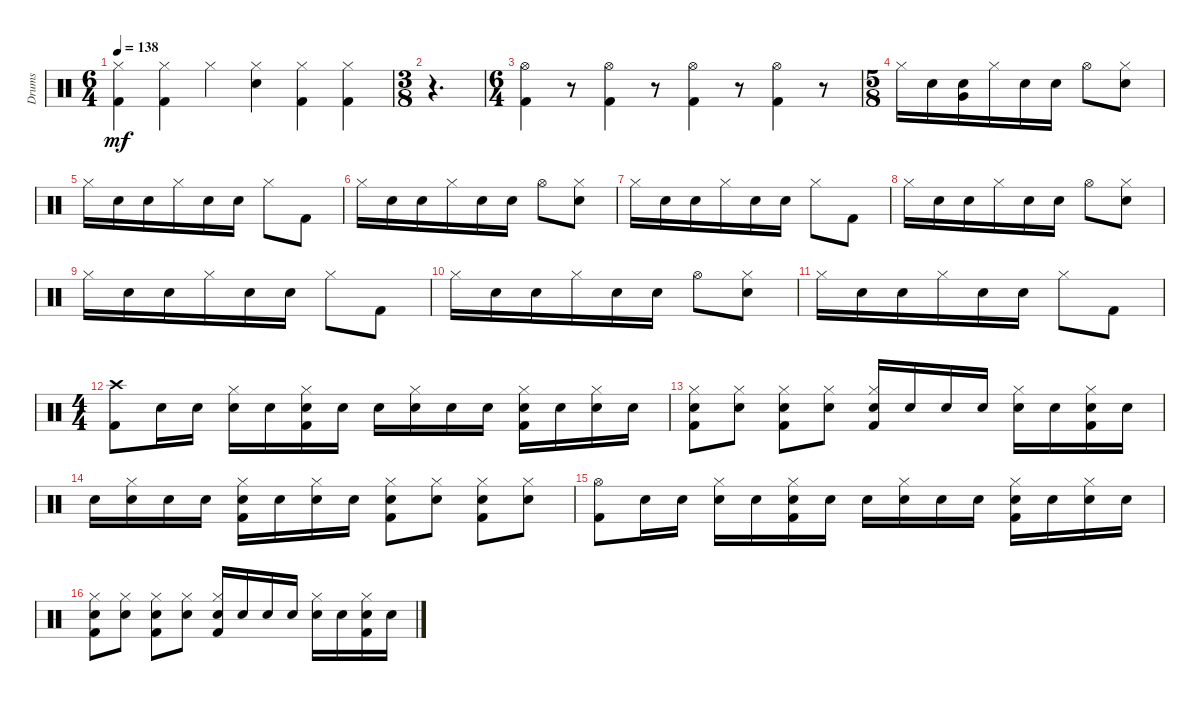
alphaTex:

\track ("Drums" "Drums") {instrument percussion}
\staff {score}
\articulation defaults
\ts (6 4)
\tempo 138
\clef neutral
\ks c
("Kick (hit) 2" "Hi-Hat (closed)").4{dy mf} ("Kick (hit) 2" "Hi-Hat (closed)").4 "Hi-Hat (closed)".4 ("Snare (hit) 2" "Hi-Hat (closed)").4 ("Kick (hit) 2" "Hi-Hat (closed)").4 ("Kick (hit) 2" "Hi-Hat (closed)").4 |
\ts (3 8)
r.4{d} |
\ts (6 4)
("Kick (hit) 2" "Hi-Hat (open)").4 r.8 ("Kick (hit) 2" "Hi-Hat (open)").4 r.8 ("Kick (hit) 2" "Hi-Hat (open)").4 r.8 ("Kick (hit) 2" "Hi-Hat (open)").4 r.8 |
\ts (5 8)
"Hi-Hat (closed)".16 "Snare (hit) 2".16 ("Snare (hit) 2" "Very Low Tom (hit)").16 "Hi-Hat (closed)".16 "Snare (hit) 2".16 "Snare (hit) 2".16 "Hi-Hat (open)".8 ("Snare (hit) 2" "Hi-Hat (closed)").8 |
"Hi-Hat (closed)".16 "Snare (hit) 2".16 "Snare (hit) 2".16 "Hi-Hat (closed)".16 "Snare (hit) 2".16 "Snare (hit) 2".16 "Hi-Hat (closed)".8 "Kick (hit) 2".8 |
"Hi-Hat (closed)".16 "Snare (hit) 2".16 "Snare (hit) 2".16 "Hi-Hat (closed)".16 "Snare (hit) 2".16 "Snare (hit) 2".16 "Hi-Hat (open)".8 ("Snare (hit) 2" "Hi-Hat (closed)").8 |
"Hi-Hat (closed)".16 "Snare (hit) 2".16 "Snare (hit) 2".16 "Hi-Hat (closed)".16 "Snare (hit) 2".16 "Snare (hit) 2".16 "Hi-Hat (closed)".8 "Kick (hit) 2".8 |
"Hi-Hat (closed)".16 "Snare (hit) 2".16 "Snare (hit) 2".16 "Hi-Hat (closed)".16 "Snare (hit) 2".16 "Snare (hit) 2".16 "Hi-Hat (open)".8 ("Snare (hit) 2" "Hi-Hat (closed)").8 |
"Hi-Hat (closed)".16 "Snare (hit) 2".16 "Snare (hit) 2".16 "Hi-Hat (closed)".16 "Snare (hit) 2".16 "Snare (hit) 2".16 "Hi-Hat (closed)".8 "Kick (hit) 2".8 |
"Hi-Hat (closed)".16 "Snare (hit) 2".16 "Snare (hit) 2".16 "Hi-Hat (closed)".16 "Snare (hit) 2".16 "Snare (hit) 2".16 "Hi-Hat (open)".8 ("Snare (hit) 2" "Hi-Hat (closed)").8 |
"Hi-Hat (closed)".16 "Snare (hit) 2".16 "Snare (hit) 2".16 "Hi-Hat (closed)".16 "Snare (hit) 2".16 "Snare (hit) 2".16 "Hi-Hat (closed)".8 "Kick (hit) 2".8 |
\ts (4 4)
("Kick (hit) 2" "Crash high (hit)").8 "Electric Snare (hit)".16 "Electric Snare (hit)".16 ("Electric Snare (hit)" "Hi-Hat (closed)").16 "Electric Snare (hit)".16 ("Kick (hit) 2" "Electric Snare (hit)" "Hi-Hat (closed)").16 "Electric Snare (hit)".16 "Electric Snare (hit)".16 ("Electric Snare (hit)" "Hi-Hat (closed)").16 "Electric Snare (hit)".16 "Electric Snare (hit)".16 ("Kick (hit) 2" "Electric Snare (hit)" "Hi-Hat (closed)").16 "Electric Snare (hit)".16 ("Electric Snare (hit)" "Hi-Hat (closed)").16 "Electric Snare (hit)".16 |
("Kick (hit) 2" "Electric Snare (hit)" "Hi-Hat (closed)").8 ("Electric Snare (hit)" "Hi-Hat (closed)").8 ("Kick (hit) 2" "Electric Snare (hit)" "Hi-Hat (closed)").8 ("Electric Snare (hit)" "Hi-Hat (closed)").8 ("Kick (hit) 2" "Electric Snare (hit)" "Hi-Hat (closed)").16 "Electric Snare (hit)".16 "Electric Snare (hit)".16 "Electric Snare (hit)".16 ("Electric Snare (hit)" "Hi-Hat (closed)").16 "Electric Snare (hit)".16 ("Kick (hit) 2" "Electric Snare (hit)" "Hi-Hat (closed)").16 "Electric Snare (hit)".16 |
"Electric Snare (hit)".16 ("Electric Snare (hit)" "Hi-Hat (closed)").16 "Electric Snare (hit)".16 "Electric Snare (hit)".16 ("Kick (hit) 2" "Electric Snare (hit)" "Hi-Hat (closed)").16 "Electric Snare (hit)".16 ("Electric Snare (hit)" "Hi-Hat (closed)").16 "Electric Snare (hit)".16 ("Kick (hit) 2" "Electric Snare (hit)" "Hi-Hat (closed)").8 ("Electric Snare (hit)" "Hi-Hat (closed)").8 ("Kick (hit) 2" "Electric Snare (hit)" "Hi-Hat (closed)").8 ("Electric Snare (hit)" "Hi-Hat (closed)").8 |
("Kick (hit) 2" "Hi-Hat (open)").8 "Electric Snare (hit)".16 "Electric Snare (hit)".16 ("Electric Snare (hit)" "Hi-Hat (closed)").16 "Electric Snare (hit)".16 ("Kick (hit) 2" "Electric Snare (hit)" "Hi-Hat (closed)").16 "Electric Snare (hit)".16 "Electric Snare (hit)".16 ("Electric Snare (hit)" "Hi-Hat (closed)").16 "Electric Snare (hit)".16 "Electric Snare (hit)".16 ("Kick (hit) 2" "Electric Snare (hit)" "Hi-Hat (closed)").16 "Electric Snare (hit)".16 ("Electric Snare (hit)" "Hi-Hat (closed)").16 "Electric Snare (hit)".16 |
("Kick (hit) 2" "Electric Snare (hit)" "Hi-Hat (closed)").8 ("Electric Snare (hit)" "Hi-Hat (closed)").8 ("Kick (hit) 2" "Electric Snare (hit)" "Hi-Hat (closed)").8 ("Electric Snare (hit)" "Hi-Hat (closed)").8 ("Kick (hit) 2" "Electric Snare (hit)" "Hi-Hat (closed)").16 "Electric Snare (hit)".16 "Electric Snare (hit)".16 "Electric Snare (hit)".16 ("Electric Snare (hit)" "Hi-Hat (closed)").16 "Electric Snare (hit)".16 ("Kick (hit) 2" "Electric Snare (hit)" "Hi-Hat (closed)").16 "Electric Snare (hit)".16
